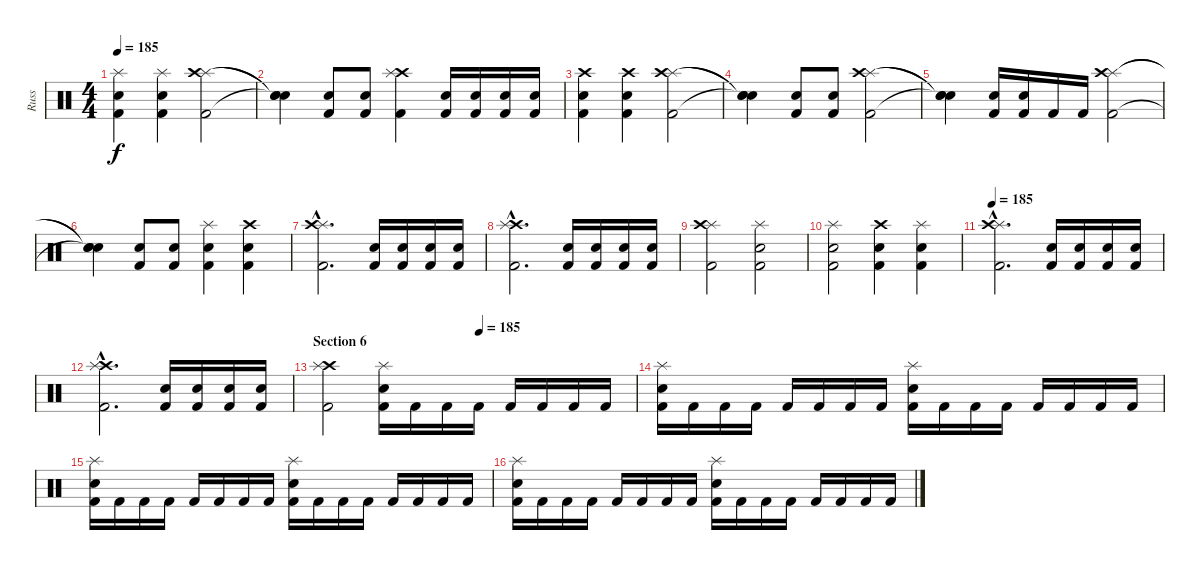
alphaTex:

\track ("Russ" "Russ") {instrument percussion}
\staff {score}
\articulation defaults
\ts (4 4)
\tempo 185
\clef neutral
\ks c
("Kick (hit) 2" "Snare (hit) 2" "Splash (hit)").4{dy f} ("Kick (hit) 2" "Snare (hit) 2" "Splash (hit)").4 ("Kick (hit) 2" "Splash (hit)" "Crash high (hit)").2 |
("Snare (hit)"{t} "Snare (hit)"{t} "Snare (hit)"{t}).4 ("Kick (hit) 2" "Snare (hit) 2").8 ("Kick (hit) 2" "Snare (hit) 2").8 ("Kick (hit) 2" "Crash high (hit)" "Splash (hit)").4 ("Kick (hit) 2" "Snare (hit) 2").16 ("Kick (hit) 2" "Snare (hit) 2").16 ("Kick (hit) 2" "Snare (hit) 2").16 ("Kick (hit) 2" "Snare (hit) 2").16 |
("Kick (hit) 2" "Snare (hit) 2" "Crash high (hit)").4 ("Kick (hit) 2" "Snare (hit) 2" "Crash high (hit)").4 ("Kick (hit) 2" "Splash (hit)" "Crash high (hit)").2 |
("Snare (hit)"{t} "Snare (hit)"{t} "Snare (hit)"{t}).4 ("Kick (hit) 2" "Snare (hit) 2").8 ("Kick (hit) 2" "Snare (hit) 2").8 ("Kick (hit) 2" "Splash (hit)" "Crash high (hit)").2 |
("Snare (hit)"{t} "Snare (hit)"{t} "Snare (hit)"{t}).4 ("Kick (hit) 2" "Snare (hit) 2").16 ("Kick (hit) 2" "Snare (hit) 2").16 "Kick (hit) 2".16 "Kick (hit) 2".16 ("Kick (hit) 2" "Splash (hit)" "Crash high (hit)").2 |
("Snare (hit)"{t} "Snare (hit)"{t} "Snare (hit)"{t}).4 ("Kick (hit) 2" "Snare (hit) 2").8 ("Kick (hit) 2" "Snare (hit) 2").8 ("Kick (hit) 2" "Snare (hit) 2" "Splash (hit)").4 ("Kick (hit) 2" "Snare (hit) 2" "Crash high (hit)").4 |
("Kick (hit) 2"{hac} "Splash (hit)"{hac} "Crash high (hit)"{hac}).2{d} ("Kick (hit) 2" "Snare (hit) 2").16 ("Kick (hit) 2" "Snare (hit) 2").16 ("Kick (hit) 2" "Snare (hit) 2").16 ("Kick (hit) 2" "Snare (hit) 2").16 |
("Kick (hit) 2"{hac} "Crash high (hit)"{hac} "Splash (hit)"{hac}).2{d} ("Kick (hit) 2" "Snare (hit) 2").16 ("Kick (hit) 2" "Snare (hit) 2").16 ("Kick (hit) 2" "Snare (hit) 2").16 ("Kick (hit) 2" "Snare (hit) 2").16 |
("Kick (hit) 2" "Splash (hit)" "Crash high (hit)").2 ("Kick (hit) 2" "Snare (hit) 2" "Splash (hit)").2 |
("Kick (hit) 2" "Snare (hit) 2" "Splash (hit)").2 ("Kick (hit) 2" "Snare (hit) 2" "Crash high (hit)").4 ("Kick (hit) 2" "Snare (hit) 2" "Splash (hit)").4 |
\tempo 185
("Kick (hit) 2"{hac} "Splash (hit)"{hac} "Crash high (hit)"{hac}).2{d} ("Kick (hit) 2" "Snare (hit) 2").16 ("Kick (hit) 2" "Snare (hit) 2").16 ("Kick (hit) 2" "Snare (hit) 2").16 ("Kick (hit) 2" "Snare (hit) 2").16 |
("Kick (hit) 2"{hac} "Crash high (hit)"{hac} "Splash (hit)"{hac}).2{d} ("Kick (hit) 2" "Snare (hit) 2").16 ("Kick (hit) 2" "Snare (hit) 2").16 ("Kick (hit) 2" "Snare (hit) 2").16 ("Kick (hit) 2" "Snare (hit) 2").16 |
\section ("" "Section 6")
\tempo (185 0.5)
("Kick (hit) 2" "Crash high (hit)" "Splash (hit)").2 ("Kick (hit) 2" "Snare (hit) 2" "Splash (hit)").16 "Kick (hit) 2".16 "Kick (hit) 2".16 "Kick (hit) 2".16 "Kick (hit) 2".16 "Kick (hit) 2".16 "Kick (hit) 2".16 "Kick (hit) 2".16 |
("Kick (hit) 2" "Snare (hit) 2" "Splash (hit)").16 "Kick (hit) 2".16 "Kick (hit) 2".16 "Kick (hit) 2".16 "Kick (hit) 2".16 "Kick (hit) 2".16 "Kick (hit) 2".16 "Kick (hit) 2".16 ("Kick (hit) 2" "Snare (hit) 2" "Splash (hit)").16 "Kick (hit) 2".16 "Kick (hit) 2".16 "Kick (hit) 2".16 "Kick (hit) 2".16 "Kick (hit) 2".16 "Kick (hit) 2".16 "Kick (hit) 2".16 |
("Kick (hit) 2" "Snare (hit) 2" "Splash (hit)").16 "Kick (hit) 2".16 "Kick (hit) 2".16 "Kick (hit) 2".16 "Kick (hit) 2".16 "Kick (hit) 2".16 "Kick (hit) 2".16 "Kick (hit) 2".16 ("Kick (hit) 2" "Snare (hit) 2" "Splash (hit)").16 "Kick (hit) 2".16 "Kick (hit) 2".16 "Kick (hit) 2".16 "Kick (hit) 2".16 "Kick (hit) 2".16 "Kick (hit) 2".16 "Kick (hit) 2".16 |
("Kick (hit) 2" "Snare (hit) 2" "Splash (hit)").16 "Kick (hit) 2".16 "Kick (hit) 2".16 "Kick (hit) 2".16 "Kick (hit) 2".16 "Kick (hit) 2".16 "Kick (hit) 2".16 "Kick (hit) 2".16 ("Kick (hit) 2" "Snare (hit) 2" "Splash (hit)").16 "Kick (hit) 2".16 "Kick (hit) 2".16 "Kick (hit) 2".16 "Kick (hit) 2".16 "Kick (hit) 2".16 "Kick (hit) 2".16 "Kick (hit) 2".16
